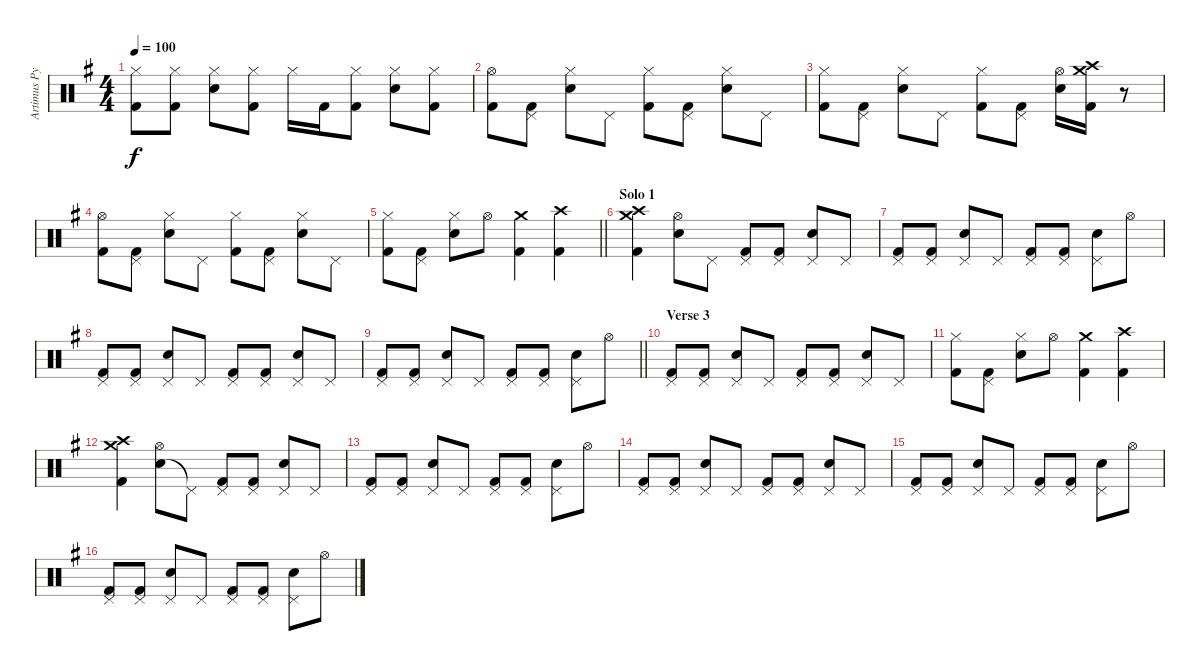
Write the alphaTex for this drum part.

\track ("Artimus Pyle" "Artimus Py") {instrument percussion}
\staff {score}
\articulation defaults
\ts (4 4)
\tempo 100
\clef neutral
\ks g
("Hi-Hat (closed)" "Kick (hit) 2").8{dy f} ("Hi-Hat (closed)" "Kick (hit) 2").8 ("Snare (hit) 2" "Hi-Hat (closed)").8 ("Hi-Hat (closed)" "Kick (hit) 2").8 "Hi-Hat (closed)".16 "Kick (hit) 2".16 ("Hi-Hat (closed)" "Kick (hit) 2").8 ("Snare (hit) 2" "Hi-Hat (closed)").8 ("Hi-Hat (closed)" "Kick (hit) 2").8 |
("Hi-Hat (open)" "Kick (hit) 2").8 ("Pedal Hi-Hat (hit)" "Kick (hit) 2").8 ("Snare (hit) 2" "Hi-Hat (closed)").8 "Pedal Hi-Hat (hit)".8 ("Hi-Hat (closed)" "Kick (hit) 2").8 ("Pedal Hi-Hat (hit)" "Kick (hit) 2").8 ("Snare (hit) 2" "Hi-Hat (closed)").8 "Pedal Hi-Hat (hit)".8 |
("Hi-Hat (closed)" "Kick (hit) 2").8 ("Pedal Hi-Hat (hit)" "Kick (hit) 2").8 ("Snare (hit) 2" "Hi-Hat (closed)").8 "Pedal Hi-Hat (hit)".8 ("Hi-Hat (closed)" "Kick (hit) 2").8 ("Pedal Hi-Hat (hit)" "Kick (hit) 2").8 ("Snare (hit) 2" "Hi-Hat (open)").16 ("Crash medium (hit)" "Crash high (hit)" "Kick (hit) 2").16 r.8 |
("Hi-Hat (open)" "Kick (hit) 2").8 ("Pedal Hi-Hat (hit)" "Kick (hit) 2").8 ("Snare (hit) 2" "Hi-Hat (closed)").8 "Pedal Hi-Hat (hit)".8 ("Hi-Hat (closed)" "Kick (hit) 2").8 ("Pedal Hi-Hat (hit)" "Kick (hit) 2").8 ("Snare (hit) 2" "Hi-Hat (closed)").8 "Pedal Hi-Hat (hit)".8 |
\barLineRight lightlight
("Hi-Hat (closed)" "Kick (hit) 2").8 ("Pedal Hi-Hat (hit)" "Kick (hit) 2").8 ("Snare (hit) 2" "Hi-Hat (closed)").8 "Hi-Hat (open)".8 ("Crash medium (hit)" "Kick (hit) 2").4 ("Crash high (hit)" "Kick (hit) 2").4 |
\section ("" "Solo 1")
("Crash medium (hit)" "Crash high (hit)" "Kick (hit) 2").4 ("Snare (hit) 2" "Hi-Hat (open)").8 "Pedal Hi-Hat (hit)".8 ("Pedal Hi-Hat (hit)" "Kick (hit) 2").8 ("Pedal Hi-Hat (hit)" "Kick (hit) 2").8 ("Snare (hit) 2" "Pedal Hi-Hat (hit)").8 "Pedal Hi-Hat (hit)".8 |
("Pedal Hi-Hat (hit)" "Kick (hit) 2").8 ("Pedal Hi-Hat (hit)" "Kick (hit) 2").8 ("Snare (hit) 2" "Pedal Hi-Hat (hit)").8 "Pedal Hi-Hat (hit)".8 ("Pedal Hi-Hat (hit)" "Kick (hit) 2").8 ("Pedal Hi-Hat (hit)" "Kick (hit) 2").8 ("Snare (hit) 2" "Pedal Hi-Hat (hit)").8 "Hi-Hat (open)".8 |
("Pedal Hi-Hat (hit)" "Kick (hit) 2").8 ("Pedal Hi-Hat (hit)" "Kick (hit) 2").8 ("Snare (hit) 2" "Pedal Hi-Hat (hit)").8 "Pedal Hi-Hat (hit)".8 ("Pedal Hi-Hat (hit)" "Kick (hit) 2").8 ("Pedal Hi-Hat (hit)" "Kick (hit) 2").8 ("Snare (hit) 2" "Pedal Hi-Hat (hit)").8 "Pedal Hi-Hat (hit)".8 |
\barLineRight lightlight
("Pedal Hi-Hat (hit)" "Kick (hit) 2").8 ("Pedal Hi-Hat (hit)" "Kick (hit) 2").8 ("Snare (hit) 2" "Pedal Hi-Hat (hit)").8 "Pedal Hi-Hat (hit)".8 ("Pedal Hi-Hat (hit)" "Kick (hit) 2").8 ("Pedal Hi-Hat (hit)" "Kick (hit) 2").8 ("Snare (hit) 2" "Pedal Hi-Hat (hit)").8 "Hi-Hat (open)".8 |
\section ("" "Verse 3")
("Pedal Hi-Hat (hit)" "Kick (hit) 2").8 ("Pedal Hi-Hat (hit)" "Kick (hit) 2").8 ("Snare (hit) 2" "Pedal Hi-Hat (hit)").8 "Pedal Hi-Hat (hit)".8 ("Pedal Hi-Hat (hit)" "Kick (hit) 2").8 ("Pedal Hi-Hat (hit)" "Kick (hit) 2").8 ("Snare (hit) 2" "Pedal Hi-Hat (hit)").8 "Pedal Hi-Hat (hit)".8 |
("Hi-Hat (closed)" "Kick (hit) 2").8 ("Pedal Hi-Hat (hit)" "Kick (hit) 2").8 ("Snare (hit) 2" "Hi-Hat (closed)").8 "Hi-Hat (open)".8 ("Crash medium (hit)" "Kick (hit) 2").4 ("Crash high (hit)" "Kick (hit) 2").4 |
("Crash medium (hit)" "Crash high (hit)" "Kick (hit) 2").4 ("Snare (hit) 2" "Hi-Hat (open)").8 "Pedal Hi-Hat (hit)"{t}.8 ("Pedal Hi-Hat (hit)" "Kick (hit) 2").8 ("Pedal Hi-Hat (hit)" "Kick (hit) 2").8 ("Snare (hit) 2" "Pedal Hi-Hat (hit)").8 "Pedal Hi-Hat (hit)".8 |
("Pedal Hi-Hat (hit)" "Kick (hit) 2").8 ("Pedal Hi-Hat (hit)" "Kick (hit) 2").8 ("Snare (hit) 2" "Pedal Hi-Hat (hit)").8 "Pedal Hi-Hat (hit)".8 ("Pedal Hi-Hat (hit)" "Kick (hit) 2").8 ("Pedal Hi-Hat (hit)" "Kick (hit) 2").8 ("Snare (hit) 2" "Pedal Hi-Hat (hit)").8 "Hi-Hat (open)".8 |
("Pedal Hi-Hat (hit)" "Kick (hit) 2").8 ("Pedal Hi-Hat (hit)" "Kick (hit) 2").8 ("Snare (hit) 2" "Pedal Hi-Hat (hit)").8 "Pedal Hi-Hat (hit)".8 ("Pedal Hi-Hat (hit)" "Kick (hit) 2").8 ("Pedal Hi-Hat (hit)" "Kick (hit) 2").8 ("Snare (hit) 2" "Pedal Hi-Hat (hit)").8 "Pedal Hi-Hat (hit)".8 |
("Pedal Hi-Hat (hit)" "Kick (hit) 2").8 ("Pedal Hi-Hat (hit)" "Kick (hit) 2").8 ("Snare (hit) 2" "Pedal Hi-Hat (hit)").8 "Pedal Hi-Hat (hit)".8 ("Pedal Hi-Hat (hit)" "Kick (hit) 2").8 ("Pedal Hi-Hat (hit)" "Kick (hit) 2").8 ("Snare (hit) 2" "Pedal Hi-Hat (hit)").8 "Hi-Hat (open)".8 |
("Pedal Hi-Hat (hit)" "Kick (hit) 2").8 ("Pedal Hi-Hat (hit)" "Kick (hit) 2").8 ("Snare (hit) 2" "Pedal Hi-Hat (hit)").8 "Pedal Hi-Hat (hit)".8 ("Pedal Hi-Hat (hit)" "Kick (hit) 2").8 ("Pedal Hi-Hat (hit)" "Kick (hit) 2").8 ("Snare (hit) 2" "Pedal Hi-Hat (hit)").8 "Hi-Hat (open)".8
